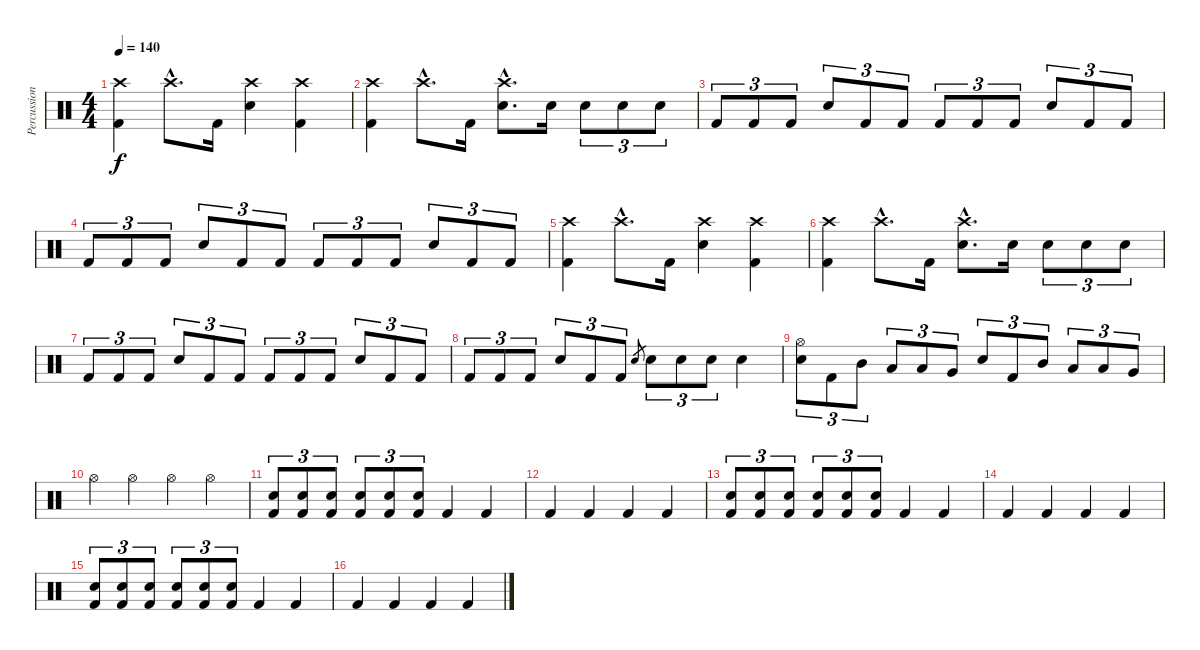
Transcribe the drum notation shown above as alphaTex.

\track ("Percussion" "Percussion") {instrument percussion}
\staff {score}
\articulation defaults
\ts (4 4)
\tempo 140
\clef neutral
\ks c
("Crash high (hit)" "Kick (hit) 2").4{dy f} "Crash high (hit)"{hac}.8{d} "Kick (hit) 2".16 ("Crash high (hit)" "Electric Snare (hit)").4 ("Crash high (hit)" "Kick (hit) 2").4 |
("Crash high (hit)" "Kick (hit) 2").4 "Crash high (hit)"{hac}.8{d} "Kick (hit) 2".16 ("Crash high (hit)"{hac} "Electric Snare (hit)"{hac}).8{d} "Electric Snare (hit)".16 "Electric Snare (hit)".8{tu (3 2)} "Electric Snare (hit)".8{tu (3 2)} "Electric Snare (hit)".8{tu (3 2)} |
"Kick (hit) 2".8{tu (3 2)} "Kick (hit) 2".8{tu (3 2)} "Kick (hit) 2".8{tu (3 2)} "Electric Snare (hit)".8{tu (3 2)} "Kick (hit) 2".8{tu (3 2)} "Kick (hit) 2".8{tu (3 2)} "Kick (hit) 2".8{tu (3 2)} "Kick (hit) 2".8{tu (3 2)} "Kick (hit) 2".8{tu (3 2)} "Electric Snare (hit)".8{tu (3 2)} "Kick (hit) 2".8{tu (3 2)} "Kick (hit) 2".8{tu (3 2)} |
"Kick (hit) 2".8{tu (3 2)} "Kick (hit) 2".8{tu (3 2)} "Kick (hit) 2".8{tu (3 2)} "Electric Snare (hit)".8{tu (3 2)} "Kick (hit) 2".8{tu (3 2)} "Kick (hit) 2".8{tu (3 2)} "Kick (hit) 2".8{tu (3 2)} "Kick (hit) 2".8{tu (3 2)} "Kick (hit) 2".8{tu (3 2)} "Electric Snare (hit)".8{tu (3 2)} "Kick (hit) 2".8{tu (3 2)} "Kick (hit) 2".8{tu (3 2)} |
("Crash high (hit)" "Kick (hit) 2").4 "Crash high (hit)"{hac}.8{d} "Kick (hit) 2".16 ("Crash high (hit)" "Electric Snare (hit)").4 ("Crash high (hit)" "Kick (hit) 2").4 |
("Crash high (hit)" "Kick (hit) 2").4 "Crash high (hit)"{hac}.8{d} "Kick (hit) 2".16 ("Crash high (hit)"{hac} "Electric Snare (hit)"{hac}).8{d} "Electric Snare (hit)".16 "Electric Snare (hit)".8{tu (3 2)} "Electric Snare (hit)".8{tu (3 2)} "Electric Snare (hit)".8{tu (3 2)} |
"Kick (hit) 2".8{tu (3 2)} "Kick (hit) 2".8{tu (3 2)} "Kick (hit) 2".8{tu (3 2)} "Electric Snare (hit)".8{tu (3 2)} "Kick (hit) 2".8{tu (3 2)} "Kick (hit) 2".8{tu (3 2)} "Kick (hit) 2".8{tu (3 2)} "Kick (hit) 2".8{tu (3 2)} "Kick (hit) 2".8{tu (3 2)} "Electric Snare (hit)".8{tu (3 2)} "Kick (hit) 2".8{tu (3 2)} "Kick (hit) 2".8{tu (3 2)} |
"Kick (hit) 2".8{tu (3 2)} "Kick (hit) 2".8{tu (3 2)} "Kick (hit) 2".8{tu (3 2)} "Electric Snare (hit)".8{tu (3 2)} "Kick (hit) 2".8{tu (3 2)} "Kick (hit) 2".8{tu (3 2)} "Electric Snare (hit)".8{gr} "Electric Snare (hit)".8{tu (3 2)} "Electric Snare (hit)".8{tu (3 2)} "Electric Snare (hit)".8{tu (3 2)} "Electric Snare (hit)".4 |
("Hi-Hat (open)" "Electric Snare (hit)").8{tu (3 2)} "Kick (hit) 2".8{tu (3 2)} "Mid Tom (hit)".8{tu (3 2)} "Low Tom (hit)".8{tu (3 2)} "Low Tom (hit)".8{tu (3 2)} "Very Low Tom (hit)".8{tu (3 2)} "Electric Snare (hit)".8{tu (3 2)} "Kick (hit) 2".8{tu (3 2)} "Mid Tom (hit)".8{tu (3 2)} "Low Tom (hit)".8{tu (3 2)} "Low Tom (hit)".8{tu (3 2)} "Very Low Tom (hit)".8{tu (3 2)} |
"Hi-Hat (open)".4 "Hi-Hat (open)".4 "Hi-Hat (open)".4 "Hi-Hat (open)".4 |
("Electric Snare (hit)" "Kick (hit) 2").8{tu (3 2)} ("Electric Snare (hit)" "Kick (hit) 2").8{tu (3 2)} ("Electric Snare (hit)" "Kick (hit) 2").8{tu (3 2)} ("Electric Snare (hit)" "Kick (hit) 2").8{tu (3 2)} ("Electric Snare (hit)" "Kick (hit) 2").8{tu (3 2)} ("Electric Snare (hit)" "Kick (hit) 2").8{tu (3 2)} "Kick (hit) 2".4 "Kick (hit) 2".4 |
"Kick (hit) 2".4 "Kick (hit) 2".4 "Kick (hit) 2".4 "Kick (hit) 2".4 |
("Electric Snare (hit)" "Kick (hit) 2").8{tu (3 2)} ("Electric Snare (hit)" "Kick (hit) 2").8{tu (3 2)} ("Electric Snare (hit)" "Kick (hit) 2").8{tu (3 2)} ("Electric Snare (hit)" "Kick (hit) 2").8{tu (3 2)} ("Electric Snare (hit)" "Kick (hit) 2").8{tu (3 2)} ("Electric Snare (hit)" "Kick (hit) 2").8{tu (3 2)} "Kick (hit) 2".4 "Kick (hit) 2".4 |
"Kick (hit) 2".4 "Kick (hit) 2".4 "Kick (hit) 2".4 "Kick (hit) 2".4 |
("Electric Snare (hit)" "Kick (hit) 2").8{tu (3 2)} ("Electric Snare (hit)" "Kick (hit) 2").8{tu (3 2)} ("Electric Snare (hit)" "Kick (hit) 2").8{tu (3 2)} ("Electric Snare (hit)" "Kick (hit) 2").8{tu (3 2)} ("Electric Snare (hit)" "Kick (hit) 2").8{tu (3 2)} ("Electric Snare (hit)" "Kick (hit) 2").8{tu (3 2)} "Kick (hit) 2".4 "Kick (hit) 2".4 |
"Kick (hit) 2".4 "Kick (hit) 2".4 "Kick (hit) 2".4 "Kick (hit) 2".4
